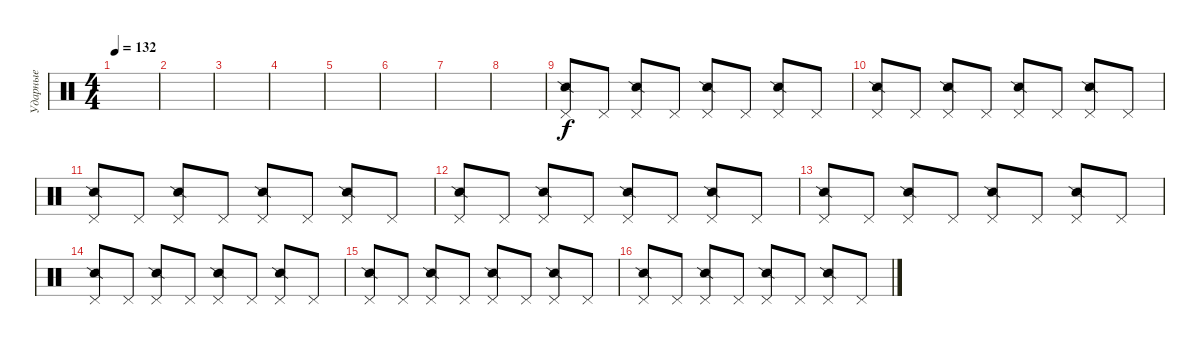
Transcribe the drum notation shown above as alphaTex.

\track ("Ударные" "Ударные") {instrument percussion}
\staff {score}
\articulation defaults
\ts (4 4)
\tempo 132
\clef neutral
\ks c
|
|
|
|
|
|
|
|
("Snare (side stick) 2" "Pedal Hi-Hat (hit)").8 "Pedal Hi-Hat (hit)".8 ("Pedal Hi-Hat (hit)" "Snare (side stick) 2").8 "Pedal Hi-Hat (hit)".8 ("Pedal Hi-Hat (hit)" "Snare (side stick) 2").8 "Pedal Hi-Hat (hit)".8 ("Pedal Hi-Hat (hit)" "Snare (side stick) 2").8 "Pedal Hi-Hat (hit)".8 |
("Snare (side stick) 2" "Pedal Hi-Hat (hit)").8 "Pedal Hi-Hat (hit)".8 ("Pedal Hi-Hat (hit)" "Snare (side stick) 2").8 "Pedal Hi-Hat (hit)".8 ("Pedal Hi-Hat (hit)" "Snare (side stick) 2").8 "Pedal Hi-Hat (hit)".8 ("Pedal Hi-Hat (hit)" "Snare (side stick) 2").8 "Pedal Hi-Hat (hit)".8 |
("Snare (side stick) 2" "Pedal Hi-Hat (hit)").8 "Pedal Hi-Hat (hit)".8 ("Pedal Hi-Hat (hit)" "Snare (side stick) 2").8 "Pedal Hi-Hat (hit)".8 ("Pedal Hi-Hat (hit)" "Snare (side stick) 2").8 "Pedal Hi-Hat (hit)".8 ("Pedal Hi-Hat (hit)" "Snare (side stick) 2").8 "Pedal Hi-Hat (hit)".8 |
("Snare (side stick) 2" "Pedal Hi-Hat (hit)").8 "Pedal Hi-Hat (hit)".8 ("Pedal Hi-Hat (hit)" "Snare (side stick) 2").8 "Pedal Hi-Hat (hit)".8 ("Pedal Hi-Hat (hit)" "Snare (side stick) 2").8 "Pedal Hi-Hat (hit)".8 ("Pedal Hi-Hat (hit)" "Snare (side stick) 2").8 "Pedal Hi-Hat (hit)".8 |
("Snare (side stick) 2" "Pedal Hi-Hat (hit)").8 "Pedal Hi-Hat (hit)".8 ("Pedal Hi-Hat (hit)" "Snare (side stick) 2").8 "Pedal Hi-Hat (hit)".8 ("Pedal Hi-Hat (hit)" "Snare (side stick) 2").8 "Pedal Hi-Hat (hit)".8 ("Pedal Hi-Hat (hit)" "Snare (side stick) 2").8 "Pedal Hi-Hat (hit)".8 |
("Snare (side stick) 2" "Pedal Hi-Hat (hit)").8 "Pedal Hi-Hat (hit)".8 ("Pedal Hi-Hat (hit)" "Snare (side stick) 2").8 "Pedal Hi-Hat (hit)".8 ("Pedal Hi-Hat (hit)" "Snare (side stick) 2").8 "Pedal Hi-Hat (hit)".8 ("Pedal Hi-Hat (hit)" "Snare (side stick) 2").8 "Pedal Hi-Hat (hit)".8 |
("Snare (side stick) 2" "Pedal Hi-Hat (hit)").8 "Pedal Hi-Hat (hit)".8 ("Pedal Hi-Hat (hit)" "Snare (side stick) 2").8 "Pedal Hi-Hat (hit)".8 ("Pedal Hi-Hat (hit)" "Snare (side stick) 2").8 "Pedal Hi-Hat (hit)".8 ("Pedal Hi-Hat (hit)" "Snare (side stick) 2").8 "Pedal Hi-Hat (hit)".8 |
("Snare (side stick) 2" "Pedal Hi-Hat (hit)").8 "Pedal Hi-Hat (hit)".8 ("Pedal Hi-Hat (hit)" "Snare (side stick) 2").8 "Pedal Hi-Hat (hit)".8 ("Pedal Hi-Hat (hit)" "Snare (side stick) 2").8 "Pedal Hi-Hat (hit)".8 ("Pedal Hi-Hat (hit)" "Snare (side stick) 2").8 "Pedal Hi-Hat (hit)".8
